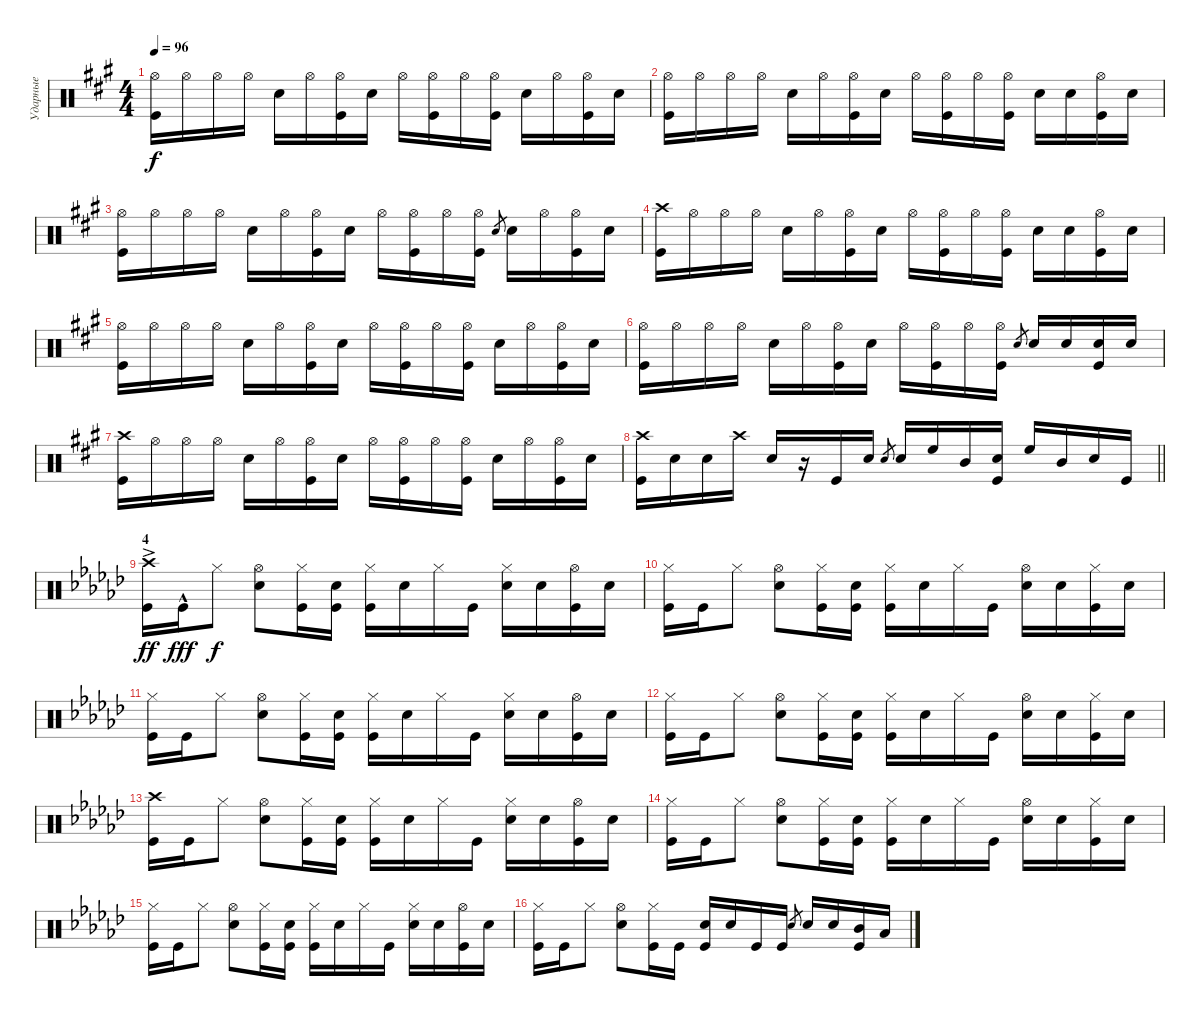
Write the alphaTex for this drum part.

\track ("Ударные" "Ударные") {instrument percussion}
\staff {score}
\articulation defaults
\ts (4 4)
\tempo 96
\clef neutral
\ks f#minor
("Hi-Hat (open)" "Kick (hit)").16{dy f} "Hi-Hat (open)".16 "Hi-Hat (open)".16 "Hi-Hat (open)".16 "Snare (hit) 2".16 "Hi-Hat (open)".16 ("Kick (hit)" "Hi-Hat (open)").16 "Snare (hit) 2".16 "Hi-Hat (open)".16 ("Hi-Hat (open)" "Kick (hit)").16 "Hi-Hat (open)".16 ("Hi-Hat (open)" "Kick (hit)").16 "Snare (hit) 2".16 "Hi-Hat (open)".16 ("Kick (hit)" "Hi-Hat (open)").16 "Snare (hit) 2".16 |
("Hi-Hat (open)" "Kick (hit)").16 "Hi-Hat (open)".16 "Hi-Hat (open)".16 "Hi-Hat (open)".16 "Snare (hit) 2".16 "Hi-Hat (open)".16 ("Kick (hit)" "Hi-Hat (open)").16 "Snare (hit) 2".16 "Hi-Hat (open)".16 ("Hi-Hat (open)" "Kick (hit)").16 "Hi-Hat (open)".16 ("Hi-Hat (open)" "Kick (hit)").16 "Snare (hit) 2".16 "Snare (hit) 2".16 ("Kick (hit)" "Hi-Hat (open)").16 "Snare (hit) 2".16 |
("Hi-Hat (open)" "Kick (hit)").16 "Hi-Hat (open)".16 "Hi-Hat (open)".16 "Hi-Hat (open)".16 "Snare (hit) 2".16 "Hi-Hat (open)".16 ("Kick (hit)" "Hi-Hat (open)").16 "Snare (hit) 2".16 "Hi-Hat (open)".16 ("Hi-Hat (open)" "Kick (hit)").16 "Hi-Hat (open)".16 ("Hi-Hat (open)" "Kick (hit)").16 "Snare (hit) 2".8{gr} "Snare (hit) 2".16 "Hi-Hat (open)".16 ("Kick (hit)" "Hi-Hat (open)").16 "Snare (hit) 2".16 |
("Crash high (hit)" "Kick (hit)").16 "Hi-Hat (open)".16 "Hi-Hat (open)".16 "Hi-Hat (open)".16 "Snare (hit) 2".16 "Hi-Hat (open)".16 ("Kick (hit)" "Hi-Hat (open)").16 "Snare (hit) 2".16 "Hi-Hat (open)".16 ("Hi-Hat (open)" "Kick (hit)").16 "Hi-Hat (open)".16 ("Hi-Hat (open)" "Kick (hit)").16 "Snare (hit) 2".16 "Snare (hit) 2".16 ("Kick (hit)" "Hi-Hat (open)").16 "Snare (hit) 2".16 |
("Hi-Hat (open)" "Kick (hit)").16 "Hi-Hat (open)".16 "Hi-Hat (open)".16 "Hi-Hat (open)".16 "Snare (hit) 2".16 "Hi-Hat (open)".16 ("Kick (hit)" "Hi-Hat (open)").16 "Snare (hit) 2".16 "Hi-Hat (open)".16 ("Hi-Hat (open)" "Kick (hit)").16 "Hi-Hat (open)".16 ("Hi-Hat (open)" "Kick (hit)").16 "Snare (hit) 2".16 "Hi-Hat (open)".16 ("Kick (hit)" "Hi-Hat (open)").16 "Snare (hit) 2".16 |
("Hi-Hat (open)" "Kick (hit)").16 "Hi-Hat (open)".16 "Hi-Hat (open)".16 "Hi-Hat (open)".16 "Snare (hit) 2".16 "Hi-Hat (open)".16 ("Kick (hit)" "Hi-Hat (open)").16 "Snare (hit) 2".16 "Hi-Hat (open)".16 ("Hi-Hat (open)" "Kick (hit)").16 "Hi-Hat (open)".16 ("Hi-Hat (open)" "Kick (hit)").16 "Snare (hit) 2".8{gr} "Snare (hit) 2".16 "Snare (hit) 2".16 ("Kick (hit)" "Snare (hit) 2").16 "Snare (hit) 2".16 |
("Crash high (hit)" "Kick (hit)").16 "Hi-Hat (open)".16 "Hi-Hat (open)".16 "Hi-Hat (open)".16 "Snare (hit) 2".16 "Hi-Hat (open)".16 ("Kick (hit)" "Hi-Hat (open)").16 "Snare (hit) 2".16 "Hi-Hat (open)".16 ("Hi-Hat (open)" "Kick (hit)").16 "Hi-Hat (open)".16 ("Hi-Hat (open)" "Kick (hit)").16 "Snare (hit) 2".16 "Hi-Hat (open)".16 ("Kick (hit)" "Hi-Hat (open)").16 "Snare (hit) 2".16 |
\barLineRight lightlight
("Crash high (hit)" "Kick (hit)").16 "Snare (hit) 2".16 "Snare (hit) 2".16 "Crash high (hit)".16 "Snare (hit) 2".16 r.16 "Kick (hit)".16 "Snare (hit) 2".16 "Snare (hit) 2".8{gr} "Snare (hit) 2".16 "High Floor Tom (hit)".16 "Mid Tom (hit)".16 ("Snare (hit) 2" "Kick (hit)").16 "High Floor Tom (hit)".16 "Mid Tom (hit)".16 "Snare (hit) 2".16 "Kick (hit)".16 |
\section ("" "4")
\ks ebminor
("Crash high (hit)" "Kick (hit)"{ac}).16{dy ff} "Kick (hit)"{hac}.16{dy fff} "Hi-Hat (closed)".8{dy f} ("Hi-Hat (open)" "Snare (hit) 2").8 ("Hi-Hat (closed)" "Kick (hit)").16 ("Kick (hit)" "Snare (hit) 2").16 ("Hi-Hat (closed)" "Kick (hit)").16 "Snare (hit) 2".16 "Hi-Hat (closed)".16 "Kick (hit)".16 ("Hi-Hat (closed)" "Snare (hit) 2").16 "Snare (hit) 2".16 ("Hi-Hat (open)" "Kick (hit)").16 "Snare (hit) 2".16 |
("Hi-Hat (closed)" "Kick (hit)").16 "Kick (hit)".16 "Hi-Hat (closed)".8 ("Hi-Hat (open)" "Snare (hit) 2").8 ("Hi-Hat (closed)" "Kick (hit)").16 ("Kick (hit)" "Snare (hit) 2").16 ("Hi-Hat (closed)" "Kick (hit)").16 "Snare (hit) 2".16 "Hi-Hat (closed)".16 "Kick (hit)".16 ("Hi-Hat (open)" "Snare (hit) 2").16 "Snare (hit) 2".16 ("Hi-Hat (closed)" "Kick (hit)").16 "Snare (hit) 2".16 |
("Hi-Hat (closed)" "Kick (hit)").16 "Kick (hit)".16 "Hi-Hat (closed)".8 ("Hi-Hat (open)" "Snare (hit) 2").8 ("Hi-Hat (closed)" "Kick (hit)").16 ("Kick (hit)" "Snare (hit) 2").16 ("Hi-Hat (closed)" "Kick (hit)").16 "Snare (hit) 2".16 "Hi-Hat (closed)".16 "Kick (hit)".16 ("Hi-Hat (closed)" "Snare (hit) 2").16 "Snare (hit) 2".16 ("Hi-Hat (open)" "Kick (hit)").16 "Snare (hit) 2".16 |
("Hi-Hat (closed)" "Kick (hit)").16 "Kick (hit)".16 "Hi-Hat (closed)".8 ("Hi-Hat (open)" "Snare (hit) 2").8 ("Hi-Hat (closed)" "Kick (hit)").16 ("Kick (hit)" "Snare (hit) 2").16 ("Hi-Hat (closed)" "Kick (hit)").16 "Snare (hit) 2".16 "Hi-Hat (closed)".16 "Kick (hit)".16 ("Hi-Hat (open)" "Snare (hit) 2").16 "Snare (hit) 2".16 ("Hi-Hat (closed)" "Kick (hit)").16 "Snare (hit) 2".16 |
("Crash high (hit)" "Kick (hit)").16 "Kick (hit)".16 "Hi-Hat (closed)".8 ("Hi-Hat (open)" "Snare (hit) 2").8 ("Hi-Hat (closed)" "Kick (hit)").16 ("Kick (hit)" "Snare (hit) 2").16 ("Hi-Hat (closed)" "Kick (hit)").16 "Snare (hit) 2".16 "Hi-Hat (closed)".16 "Kick (hit)".16 ("Hi-Hat (closed)" "Snare (hit) 2").16 "Snare (hit) 2".16 ("Hi-Hat (open)" "Kick (hit)").16 "Snare (hit) 2".16 |
("Hi-Hat (closed)" "Kick (hit)").16 "Kick (hit)".16 "Hi-Hat (closed)".8 ("Hi-Hat (open)" "Snare (hit) 2").8 ("Hi-Hat (closed)" "Kick (hit)").16 ("Kick (hit)" "Snare (hit) 2").16 ("Hi-Hat (closed)" "Kick (hit)").16 "Snare (hit) 2".16 "Hi-Hat (closed)".16 "Kick (hit)".16 ("Hi-Hat (open)" "Snare (hit) 2").16 "Snare (hit) 2".16 ("Hi-Hat (closed)" "Kick (hit)").16 "Snare (hit) 2".16 |
("Hi-Hat (closed)" "Kick (hit)").16 "Kick (hit)".16 "Hi-Hat (closed)".8 ("Hi-Hat (open)" "Snare (hit) 2").8 ("Hi-Hat (closed)" "Kick (hit)").16 ("Kick (hit)" "Snare (hit) 2").16 ("Hi-Hat (closed)" "Kick (hit)").16 "Snare (hit) 2".16 "Hi-Hat (closed)".16 "Kick (hit)".16 ("Hi-Hat (closed)" "Snare (hit) 2").16 "Snare (hit) 2".16 ("Hi-Hat (open)" "Kick (hit)").16 "Snare (hit) 2".16 |
("Hi-Hat (closed)" "Kick (hit)").16 "Kick (hit)".16 "Hi-Hat (closed)".8 ("Hi-Hat (open)" "Snare (hit) 2").8 ("Hi-Hat (closed)" "Kick (hit)").16 "Kick (hit)".16 ("Kick (hit)" "Snare (hit) 2").16 "Snare (hit) 2".16 "Kick (hit)".16 "Kick (hit)".16 "Snare (hit) 2".8{gr} "Snare (hit) 2".16 "Snare (hit) 2".16 ("Kick (hit)" "Mid Tom (hit)").16 "Low Tom (hit)".16
